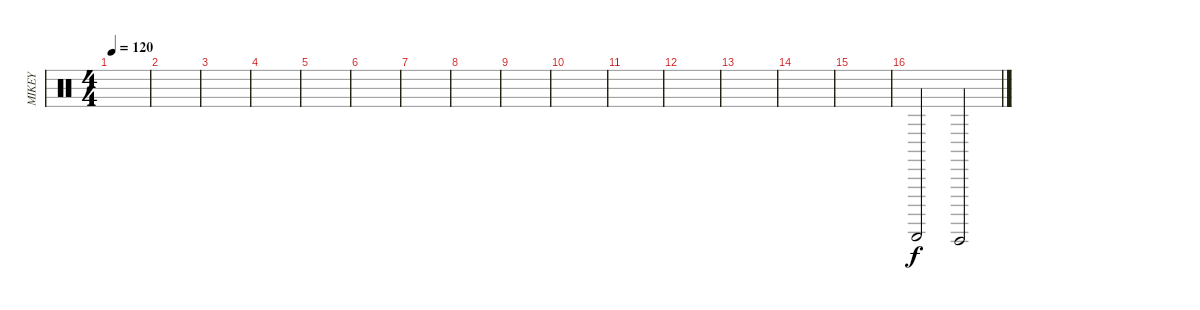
\track ("MIKEY" "MIKEY") {instrument percussion}
\staff {score}
\articulation defaults
\ts (4 4)
\tempo 120
\clef neutral
\ks c
|
|
|
|
|
|
|
|
|
|
|
|
|
|
|
"Guiro (scrap-return)".2 "Guiro (hit)".2
